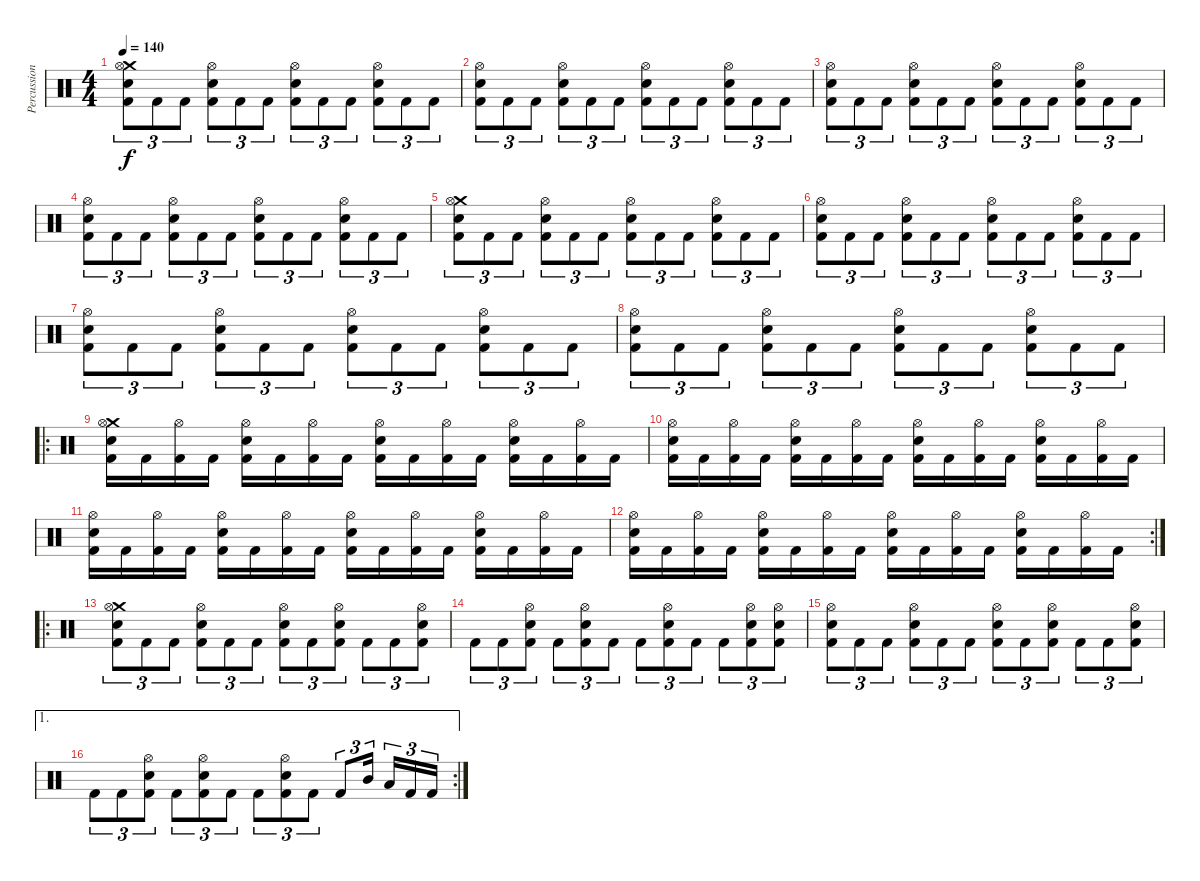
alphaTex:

\track ("Percussion" "Percussion") {instrument percussion}
\staff {score}
\articulation defaults
\ts (4 4)
\tempo 140
\clef neutral
\ks c
("Crash medium (hit)" "Hi-Hat (open)" "Electric Snare (hit)" "Kick (hit) 2").8{tu (3 2) dy f} "Kick (hit) 2".8{tu (3 2)} "Kick (hit) 2".8{tu (3 2)} ("Hi-Hat (open)" "Electric Snare (hit)" "Kick (hit) 2").8{tu (3 2)} "Kick (hit) 2".8{tu (3 2)} "Kick (hit) 2".8{tu (3 2)} ("Hi-Hat (open)" "Electric Snare (hit)" "Kick (hit) 2").8{tu (3 2)} "Kick (hit) 2".8{tu (3 2)} "Kick (hit) 2".8{tu (3 2)} ("Hi-Hat (open)" "Electric Snare (hit)" "Kick (hit) 2").8{tu (3 2)} "Kick (hit) 2".8{tu (3 2)} "Kick (hit) 2".8{tu (3 2)} |
("Hi-Hat (open)" "Electric Snare (hit)" "Kick (hit) 2").8{tu (3 2)} "Kick (hit) 2".8{tu (3 2)} "Kick (hit) 2".8{tu (3 2)} ("Hi-Hat (open)" "Electric Snare (hit)" "Kick (hit) 2").8{tu (3 2)} "Kick (hit) 2".8{tu (3 2)} "Kick (hit) 2".8{tu (3 2)} ("Hi-Hat (open)" "Electric Snare (hit)" "Kick (hit) 2").8{tu (3 2)} "Kick (hit) 2".8{tu (3 2)} "Kick (hit) 2".8{tu (3 2)} ("Hi-Hat (open)" "Electric Snare (hit)" "Kick (hit) 2").8{tu (3 2)} "Kick (hit) 2".8{tu (3 2)} "Kick (hit) 2".8{tu (3 2)} |
("Hi-Hat (open)" "Electric Snare (hit)" "Kick (hit) 2").8{tu (3 2)} "Kick (hit) 2".8{tu (3 2)} "Kick (hit) 2".8{tu (3 2)} ("Hi-Hat (open)" "Electric Snare (hit)" "Kick (hit) 2").8{tu (3 2)} "Kick (hit) 2".8{tu (3 2)} "Kick (hit) 2".8{tu (3 2)} ("Hi-Hat (open)" "Electric Snare (hit)" "Kick (hit) 2").8{tu (3 2)} "Kick (hit) 2".8{tu (3 2)} "Kick (hit) 2".8{tu (3 2)} ("Hi-Hat (open)" "Electric Snare (hit)" "Kick (hit) 2").8{tu (3 2)} "Kick (hit) 2".8{tu (3 2)} "Kick (hit) 2".8{tu (3 2)} |
("Hi-Hat (open)" "Electric Snare (hit)" "Kick (hit) 2").8{tu (3 2)} "Kick (hit) 2".8{tu (3 2)} "Kick (hit) 2".8{tu (3 2)} ("Hi-Hat (open)" "Electric Snare (hit)" "Kick (hit) 2").8{tu (3 2)} "Kick (hit) 2".8{tu (3 2)} "Kick (hit) 2".8{tu (3 2)} ("Hi-Hat (open)" "Electric Snare (hit)" "Kick (hit) 2").8{tu (3 2)} "Kick (hit) 2".8{tu (3 2)} "Kick (hit) 2".8{tu (3 2)} ("Hi-Hat (open)" "Electric Snare (hit)" "Kick (hit) 2").8{tu (3 2)} "Kick (hit) 2".8{tu (3 2)} "Kick (hit) 2".8{tu (3 2)} |
("Crash medium (hit)" "Hi-Hat (open)" "Electric Snare (hit)" "Kick (hit) 2").8{tu (3 2)} "Kick (hit) 2".8{tu (3 2)} "Kick (hit) 2".8{tu (3 2)} ("Hi-Hat (open)" "Electric Snare (hit)" "Kick (hit) 2").8{tu (3 2)} "Kick (hit) 2".8{tu (3 2)} "Kick (hit) 2".8{tu (3 2)} ("Hi-Hat (open)" "Electric Snare (hit)" "Kick (hit) 2").8{tu (3 2)} "Kick (hit) 2".8{tu (3 2)} "Kick (hit) 2".8{tu (3 2)} ("Hi-Hat (open)" "Electric Snare (hit)" "Kick (hit) 2").8{tu (3 2)} "Kick (hit) 2".8{tu (3 2)} "Kick (hit) 2".8{tu (3 2)} |
("Hi-Hat (open)" "Electric Snare (hit)" "Kick (hit) 2").8{tu (3 2)} "Kick (hit) 2".8{tu (3 2)} "Kick (hit) 2".8{tu (3 2)} ("Hi-Hat (open)" "Electric Snare (hit)" "Kick (hit) 2").8{tu (3 2)} "Kick (hit) 2".8{tu (3 2)} "Kick (hit) 2".8{tu (3 2)} ("Hi-Hat (open)" "Electric Snare (hit)" "Kick (hit) 2").8{tu (3 2)} "Kick (hit) 2".8{tu (3 2)} "Kick (hit) 2".8{tu (3 2)} ("Hi-Hat (open)" "Electric Snare (hit)" "Kick (hit) 2").8{tu (3 2)} "Kick (hit) 2".8{tu (3 2)} "Kick (hit) 2".8{tu (3 2)} |
("Hi-Hat (open)" "Electric Snare (hit)" "Kick (hit) 2").8{tu (3 2)} "Kick (hit) 2".8{tu (3 2)} "Kick (hit) 2".8{tu (3 2)} ("Hi-Hat (open)" "Electric Snare (hit)" "Kick (hit) 2").8{tu (3 2)} "Kick (hit) 2".8{tu (3 2)} "Kick (hit) 2".8{tu (3 2)} ("Hi-Hat (open)" "Electric Snare (hit)" "Kick (hit) 2").8{tu (3 2)} "Kick (hit) 2".8{tu (3 2)} "Kick (hit) 2".8{tu (3 2)} ("Hi-Hat (open)" "Electric Snare (hit)" "Kick (hit) 2").8{tu (3 2)} "Kick (hit) 2".8{tu (3 2)} "Kick (hit) 2".8{tu (3 2)} |
("Hi-Hat (open)" "Electric Snare (hit)" "Kick (hit) 2").8{tu (3 2)} "Kick (hit) 2".8{tu (3 2)} "Kick (hit) 2".8{tu (3 2)} ("Hi-Hat (open)" "Electric Snare (hit)" "Kick (hit) 2").8{tu (3 2)} "Kick (hit) 2".8{tu (3 2)} "Kick (hit) 2".8{tu (3 2)} ("Hi-Hat (open)" "Electric Snare (hit)" "Kick (hit) 2").8{tu (3 2)} "Kick (hit) 2".8{tu (3 2)} "Kick (hit) 2".8{tu (3 2)} ("Hi-Hat (open)" "Electric Snare (hit)" "Kick (hit) 2").8{tu (3 2)} "Kick (hit) 2".8{tu (3 2)} "Kick (hit) 2".8{tu (3 2)} |
\ro
("Crash medium (hit)" "Hi-Hat (open)" "Electric Snare (hit)" "Kick (hit) 2").16 "Kick (hit) 2".16 ("Hi-Hat (open)" "Kick (hit) 2").16 "Kick (hit) 2".16 ("Hi-Hat (open)" "Electric Snare (hit)" "Kick (hit) 2").16 "Kick (hit) 2".16 ("Hi-Hat (open)" "Kick (hit) 2").16 "Kick (hit) 2".16 ("Hi-Hat (open)" "Electric Snare (hit)" "Kick (hit) 2").16 "Kick (hit) 2".16 ("Hi-Hat (open)" "Kick (hit) 2").16 "Kick (hit) 2".16 ("Hi-Hat (open)" "Electric Snare (hit)" "Kick (hit) 2").16 "Kick (hit) 2".16 ("Hi-Hat (open)" "Kick (hit) 2").16 "Kick (hit) 2".16 |
("Hi-Hat (open)" "Electric Snare (hit)" "Kick (hit) 2").16 "Kick (hit) 2".16 ("Hi-Hat (open)" "Kick (hit) 2").16 "Kick (hit) 2".16 ("Hi-Hat (open)" "Electric Snare (hit)" "Kick (hit) 2").16 "Kick (hit) 2".16 ("Hi-Hat (open)" "Kick (hit) 2").16 "Kick (hit) 2".16 ("Hi-Hat (open)" "Electric Snare (hit)" "Kick (hit) 2").16 "Kick (hit) 2".16 ("Hi-Hat (open)" "Kick (hit) 2").16 "Kick (hit) 2".16 ("Hi-Hat (open)" "Electric Snare (hit)" "Kick (hit) 2").16 "Kick (hit) 2".16 ("Hi-Hat (open)" "Kick (hit) 2").16 "Kick (hit) 2".16 |
("Hi-Hat (open)" "Electric Snare (hit)" "Kick (hit) 2").16 "Kick (hit) 2".16 ("Hi-Hat (open)" "Kick (hit) 2").16 "Kick (hit) 2".16 ("Hi-Hat (open)" "Electric Snare (hit)" "Kick (hit) 2").16 "Kick (hit) 2".16 ("Hi-Hat (open)" "Kick (hit) 2").16 "Kick (hit) 2".16 ("Hi-Hat (open)" "Electric Snare (hit)" "Kick (hit) 2").16 "Kick (hit) 2".16 ("Hi-Hat (open)" "Kick (hit) 2").16 "Kick (hit) 2".16 ("Hi-Hat (open)" "Electric Snare (hit)" "Kick (hit) 2").16 "Kick (hit) 2".16 ("Hi-Hat (open)" "Kick (hit) 2").16 "Kick (hit) 2".16 |
\rc 2
("Hi-Hat (open)" "Electric Snare (hit)" "Kick (hit) 2").16 "Kick (hit) 2".16 ("Hi-Hat (open)" "Kick (hit) 2").16 "Kick (hit) 2".16 ("Hi-Hat (open)" "Electric Snare (hit)" "Kick (hit) 2").16 "Kick (hit) 2".16 ("Hi-Hat (open)" "Kick (hit) 2").16 "Kick (hit) 2".16 ("Hi-Hat (open)" "Electric Snare (hit)" "Kick (hit) 2").16 "Kick (hit) 2".16 ("Hi-Hat (open)" "Kick (hit) 2").16 "Kick (hit) 2".16 ("Hi-Hat (open)" "Electric Snare (hit)" "Kick (hit) 2").16 "Kick (hit) 2".16 ("Hi-Hat (open)" "Kick (hit) 2").16 "Kick (hit) 2".16 |
\ro
("Crash medium (hit)" "Hi-Hat (open)" "Electric Snare (hit)" "Kick (hit) 2").8{tu (3 2)} "Kick (hit) 2".8{tu (3 2)} "Kick (hit) 2".8{tu (3 2)} ("Hi-Hat (open)" "Electric Snare (hit)" "Kick (hit) 2").8{tu (3 2)} "Kick (hit) 2".8{tu (3 2)} "Kick (hit) 2".8{tu (3 2)} ("Hi-Hat (open)" "Electric Snare (hit)" "Kick (hit) 2").8{tu (3 2)} "Kick (hit) 2".8{tu (3 2)} ("Hi-Hat (open)" "Electric Snare (hit)" "Kick (hit) 2").8{tu (3 2)} "Kick (hit) 2".8{tu (3 2)} "Kick (hit) 2".8{tu (3 2)} ("Hi-Hat (open)" "Electric Snare (hit)" "Kick (hit) 2").8{tu (3 2)} |
"Kick (hit) 2".8{tu (3 2)} "Kick (hit) 2".8{tu (3 2)} ("Hi-Hat (open)" "Electric Snare (hit)" "Kick (hit) 2").8{tu (3 2)} "Kick (hit) 2".8{tu (3 2)} ("Hi-Hat (open)" "Electric Snare (hit)" "Kick (hit) 2").8{tu (3 2)} "Kick (hit) 2".8{tu (3 2)} "Kick (hit) 2".8{tu (3 2)} ("Hi-Hat (open)" "Electric Snare (hit)" "Kick (hit) 2").8{tu (3 2)} "Kick (hit) 2".8{tu (3 2)} "Kick (hit) 2".8{tu (3 2)} ("Hi-Hat (open)" "Electric Snare (hit)" "Kick (hit) 2").8{tu (3 2)} ("Hi-Hat (open)" "Electric Snare (hit)" "Kick (hit) 2").8{tu (3 2)} |
("Hi-Hat (open)" "Electric Snare (hit)" "Kick (hit) 2").8{tu (3 2)} "Kick (hit) 2".8{tu (3 2)} "Kick (hit) 2".8{tu (3 2)} ("Hi-Hat (open)" "Electric Snare (hit)" "Kick (hit) 2").8{tu (3 2)} "Kick (hit) 2".8{tu (3 2)} "Kick (hit) 2".8{tu (3 2)} ("Hi-Hat (open)" "Electric Snare (hit)" "Kick (hit) 2").8{tu (3 2)} "Kick (hit) 2".8{tu (3 2)} ("Hi-Hat (open)" "Electric Snare (hit)" "Kick (hit) 2").8{tu (3 2)} "Kick (hit) 2".8{tu (3 2)} "Kick (hit) 2".8{tu (3 2)} ("Hi-Hat (open)" "Electric Snare (hit)" "Kick (hit) 2").8{tu (3 2)} |
\ae 1
\rc 2 "Kick (hit) 2".8{tu (3 2)} "Kick (hit) 2".8{tu (3 2)}
("Hi-Hat (open)" "Electric Snare (hit)" "Kick (hit) 2").8{tu (3 2)} "Kick (hit) 2".8{tu (3 2)} ("Hi-Hat (open)" "Electric Snare (hit)" "Kick (hit) 2").8{tu (3 2)} "Kick (hit) 2".8{tu (3 2)} "Kick (hit) 2".8{tu (3 2)} ("Hi-Hat (open)" "Electric Snare (hit)" "Kick (hit) 2").8{tu (3 2)} "Kick (hit) 2".8{tu (3 2)} "Kick (hit) 2".8{tu (3 2)} "Mid Tom (hit)".16{tu (3 2)} "Low Tom (hit)".16{tu (3 2)} "Kick (hit) 2".16{tu (3 2)} "Kick (hit) 2".16{tu (3 2)}
